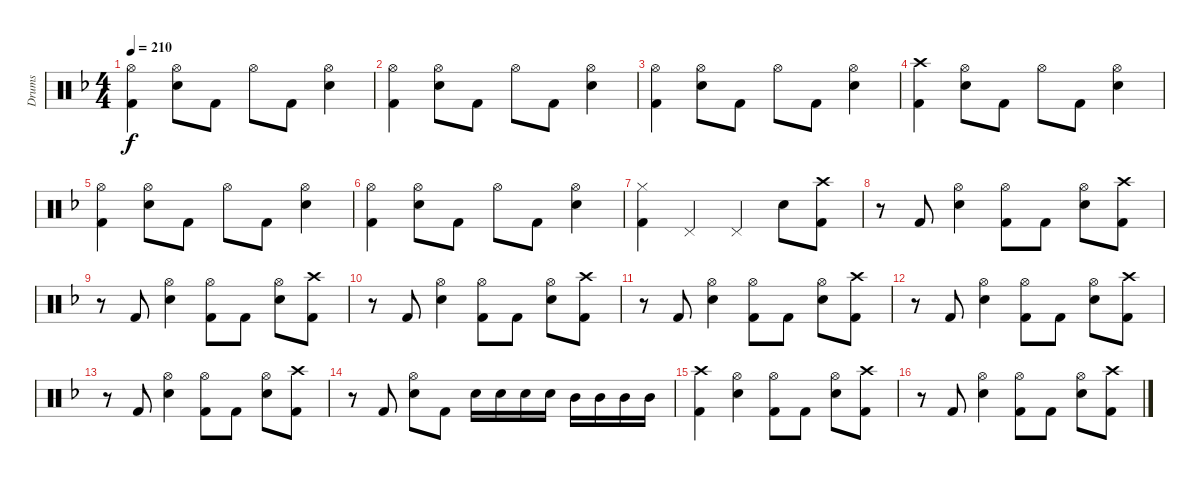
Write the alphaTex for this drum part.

\track ("Drums" "Drums") {instrument percussion}
\staff {score}
\articulation defaults
\ts (4 4)
\tempo 210
\clef neutral
\ks dminor
("Hi-Hat (open)" "Kick (hit) 2").4{dy f} ("Hi-Hat (open)" "Snare (hit) 2").8 "Kick (hit) 2".8 "Hi-Hat (open)".8 "Kick (hit) 2".8 ("Hi-Hat (open)" "Snare (hit) 2").4 |
("Hi-Hat (open)" "Kick (hit) 2").4 ("Hi-Hat (open)" "Snare (hit) 2").8 "Kick (hit) 2".8 "Hi-Hat (open)".8 "Kick (hit) 2".8 ("Hi-Hat (open)" "Snare (hit) 2").4 |
("Hi-Hat (open)" "Kick (hit) 2").4 ("Hi-Hat (open)" "Snare (hit) 2").8 "Kick (hit) 2".8 "Hi-Hat (open)".8 "Kick (hit) 2".8 ("Hi-Hat (open)" "Snare (hit) 2").4 |
("Crash high (hit)" "Kick (hit) 2").4 ("Hi-Hat (open)" "Snare (hit) 2").8 "Kick (hit) 2".8 "Hi-Hat (open)".8 "Kick (hit) 2".8 ("Hi-Hat (open)" "Snare (hit) 2").4 |
("Hi-Hat (open)" "Kick (hit) 2").4 ("Hi-Hat (open)" "Snare (hit) 2").8 "Kick (hit) 2".8 "Hi-Hat (open)".8 "Kick (hit) 2".8 ("Hi-Hat (open)" "Snare (hit) 2").4 |
("Hi-Hat (open)" "Kick (hit) 2").4 ("Hi-Hat (open)" "Snare (hit) 2").8 "Kick (hit) 2".8 "Hi-Hat (open)".8 "Kick (hit) 2".8 ("Hi-Hat (open)" "Snare (hit) 2").4 |
("Hi-Hat (closed)" "Kick (hit) 2").4 "Pedal Hi-Hat (hit)".4 "Pedal Hi-Hat (hit)".4 "Snare (hit) 2".8 ("Crash high (hit)" "Kick (hit) 2").8 |
r.8 "Kick (hit) 2".8 ("Hi-Hat (open)" "Snare (hit) 2").4 ("Hi-Hat (open)" "Kick (hit) 2").8 "Kick (hit) 2".8 ("Hi-Hat (open)" "Snare (hit) 2").8 ("Kick (hit) 2" "Crash high (hit)").8 |
r.8 "Kick (hit) 2".8 ("Hi-Hat (open)" "Snare (hit) 2").4 ("Hi-Hat (open)" "Kick (hit) 2").8 "Kick (hit) 2".8 ("Hi-Hat (open)" "Snare (hit) 2").8 ("Kick (hit) 2" "Crash high (hit)").8 |
r.8 "Kick (hit) 2".8 ("Hi-Hat (open)" "Snare (hit) 2").4 ("Hi-Hat (open)" "Kick (hit) 2").8 "Kick (hit) 2".8 ("Hi-Hat (open)" "Snare (hit) 2").8 ("Kick (hit) 2" "Crash high (hit)").8 |
r.8 "Kick (hit) 2".8 ("Hi-Hat (open)" "Snare (hit) 2").4 ("Hi-Hat (open)" "Kick (hit) 2").8 "Kick (hit) 2".8 ("Hi-Hat (open)" "Snare (hit) 2").8 ("Kick (hit) 2" "Crash high (hit)").8 |
r.8 "Kick (hit) 2".8 ("Hi-Hat (open)" "Snare (hit) 2").4 ("Hi-Hat (open)" "Kick (hit) 2").8 "Kick (hit) 2".8 ("Hi-Hat (open)" "Snare (hit) 2").8 ("Kick (hit) 2" "Crash high (hit)").8 |
r.8 "Kick (hit) 2".8 ("Hi-Hat (open)" "Snare (hit) 2").4 ("Hi-Hat (open)" "Kick (hit) 2").8 "Kick (hit) 2".8 ("Hi-Hat (open)" "Snare (hit) 2").8 ("Kick (hit) 2" "Crash high (hit)").8 |
r.8 "Kick (hit) 2".8 ("Hi-Hat (open)" "Snare (hit) 2").8 "Kick (hit) 2".8 "Snare (hit) 2".16 "Snare (hit) 2".16 "Snare (hit) 2".16 "Snare (hit) 2".16 "Mid Tom (hit)".16 "Mid Tom (hit)".16 "Mid Tom (hit)".16 "Mid Tom (hit)".16 |
("Crash high (hit)" "Kick (hit) 2").4 ("Hi-Hat (open)" "Snare (hit) 2").4 ("Kick (hit) 2" "Hi-Hat (open)").8 "Kick (hit) 2".8 ("Hi-Hat (open)" "Snare (hit) 2").8 ("Crash high (hit)" "Kick (hit) 2").8 |
r.8 "Kick (hit) 2".8 ("Hi-Hat (open)" "Snare (hit) 2").4 ("Hi-Hat (open)" "Kick (hit) 2").8 "Kick (hit) 2".8 ("Hi-Hat (open)" "Snare (hit) 2").8 ("Kick (hit) 2" "Crash high (hit)").8
